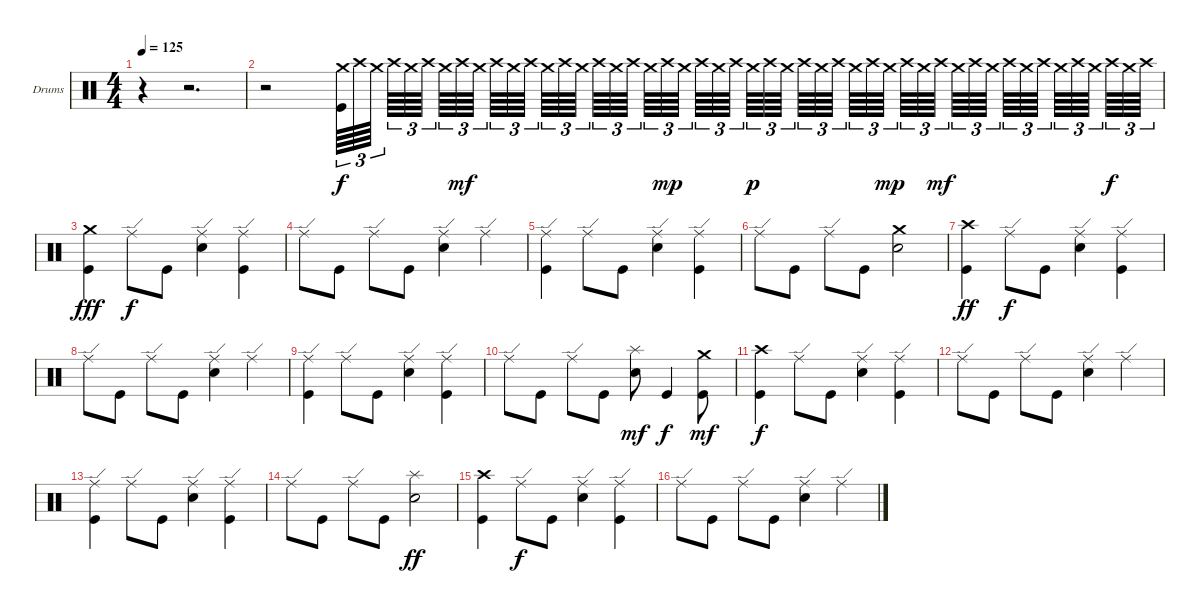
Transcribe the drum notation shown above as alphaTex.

\bracketExtendMode groupsimilarinstruments
\firstSystemTrackNameOrientation horizontal
\otherSystemsTrackNameOrientation horizontal
\track ("Барабаны" "Drums") {instrument percussion}
\staff {score}
\articulation defaults
\ts (4 4)
\tempo 125
\clef neutral
\ks c
r.4{dy f} r.2{d} |
r.2 ("Crash medium (hit)" "Kick (hit)").64{tu (3 2)} "Crash high (hit)".64{tu (3 2)} "Crash medium (hit)".64{tu (3 2)} "Crash high (hit)".64{tu (3 2)} "Crash medium (hit)".64{tu (3 2)} "Crash high (hit)".64{tu (3 2)} "Crash medium (hit)".64{tu (3 2)} "Crash high (hit)".64{tu (3 2) dy mf} "Crash medium (hit)".64{tu (3 2)} "Crash high (hit)".64{tu (3 2)} "Crash medium (hit)".64{tu (3 2)} "Crash high (hit)".64{tu (3 2)} "Crash medium (hit)".64{tu (3 2)} "Crash high (hit)".64{tu (3 2)} "Crash medium (hit)".64{tu (3 2)} "Crash high (hit)".64{tu (3 2)} "Crash medium (hit)".64{tu (3 2)} "Crash high (hit)".64{tu (3 2)} "Crash medium (hit)".64{tu (3 2)} "Crash high (hit)".64{tu (3 2) dy mp} "Crash medium (hit)".64{tu (3 2)} "Crash high (hit)".64{tu (3 2)} "Crash medium (hit)".64{tu (3 2)} "Crash high (hit)".64{tu (3 2)} "Crash medium (hit)".64{tu (3 2) dy p} "Crash high (hit)".64{tu (3 2)} "Crash medium (hit)".64{tu (3 2)} "Crash high (hit)".64{tu (3 2)} "Crash medium (hit)".64{tu (3 2)} "Crash high (hit)".64{tu (3 2)} "Crash medium (hit)".64{tu (3 2)} "Crash high (hit)".64{tu (3 2)} "Crash medium (hit)".64{tu (3 2) dy mp} "Crash high (hit)".64{tu (3 2)} "Crash medium (hit)".64{tu (3 2)} "Crash high (hit)".64{tu (3 2) dy mf} "Crash medium (hit)".64{tu (3 2)} "Crash high (hit)".64{tu (3 2)} "Crash medium (hit)".64{tu (3 2)} "Crash high (hit)".64{tu (3 2)} "Crash medium (hit)".64{tu (3 2)} "Crash high (hit)".64{tu (3 2)} "Crash medium (hit)".64{tu (3 2)} "Crash high (hit)".64{tu (3 2)} "Crash medium (hit)".64{tu (3 2)} "Crash high (hit)".64{tu (3 2) dy f} "Crash medium (hit)".64{tu (3 2)} "Crash high (hit)".64{tu (3 2)} |
("Crash medium (hit)" "Kick (hit)").4{dy fff} "Ride (edge)".8{dy f} "Kick (hit)".8 ("Ride (edge)" "Snare (hit) 2").4 ("Ride (edge)" "Kick (hit)").4 |
"Ride (edge)".8 "Kick (hit)".8 "Ride (edge)".8 "Kick (hit)".8 ("Ride (edge)" "Snare (hit) 2").4 "Ride (edge)".4 |
("Ride (edge)" "Kick (hit)").4 "Ride (edge)".8 "Kick (hit)".8 ("Ride (edge)" "Snare (hit) 2").4 ("Ride (edge)" "Kick (hit)").4 |
"Ride (edge)".8 "Kick (hit)".8 "Ride (edge)".8 "Kick (hit)".8 ("Crash medium (hit)" "Snare (hit) 2").2 |
("Crash high (hit)" "Kick (hit)").4{dy ff} "Ride (edge)".8{dy f} "Kick (hit)".8 ("Ride (edge)" "Snare (hit) 2").4 ("Ride (edge)" "Kick (hit)").4 |
"Ride (edge)".8 "Kick (hit)".8 "Ride (edge)".8 "Kick (hit)".8 ("Ride (edge)" "Snare (hit) 2").4 "Ride (edge)".4 |
("Ride (edge)" "Kick (hit)").4 "Ride (edge)".8 "Kick (hit)".8 ("Ride (edge)" "Snare (hit) 2").4 ("Ride (edge)" "Kick (hit)").4 |
"Ride (edge)".8 "Kick (hit)".8 "Ride (edge)".8 "Kick (hit)".8 ("Snare (hit) 2" "Splash (hit)").8{dy mf} "Kick (hit)".4{dy f} ("Crash medium (hit)" "Kick (hit)").8{dy mf} |
("Crash high (hit)" "Kick (hit)").4{dy f} "Ride (edge)".8 "Kick (hit)".8 ("Ride (edge)" "Snare (hit) 2").4 ("Ride (edge)" "Kick (hit)").4 |
"Ride (edge)".8 "Kick (hit)".8 "Ride (edge)".8 "Kick (hit)".8 ("Ride (edge)" "Snare (hit) 2").4 "Ride (edge)".4 |
("Ride (edge)" "Kick (hit)").4 "Ride (edge)".8 "Kick (hit)".8 ("Ride (edge)" "Snare (hit) 2").4 ("Ride (edge)" "Kick (hit)").4 |
"Ride (edge)".8 "Kick (hit)".8 "Ride (edge)".8 "Kick (hit)".8 ("Splash (hit)" "Snare (hit) 2").2{dy ff} |
("Crash high (hit)" "Kick (hit)").4 "Ride (edge)".8{dy f} "Kick (hit)".8 ("Ride (edge)" "Snare (hit) 2").4 ("Ride (edge)" "Kick (hit)").4 |
"Ride (edge)".8 "Kick (hit)".8 "Ride (edge)".8 "Kick (hit)".8 ("Ride (edge)" "Snare (hit) 2").4 "Ride (edge)".4
